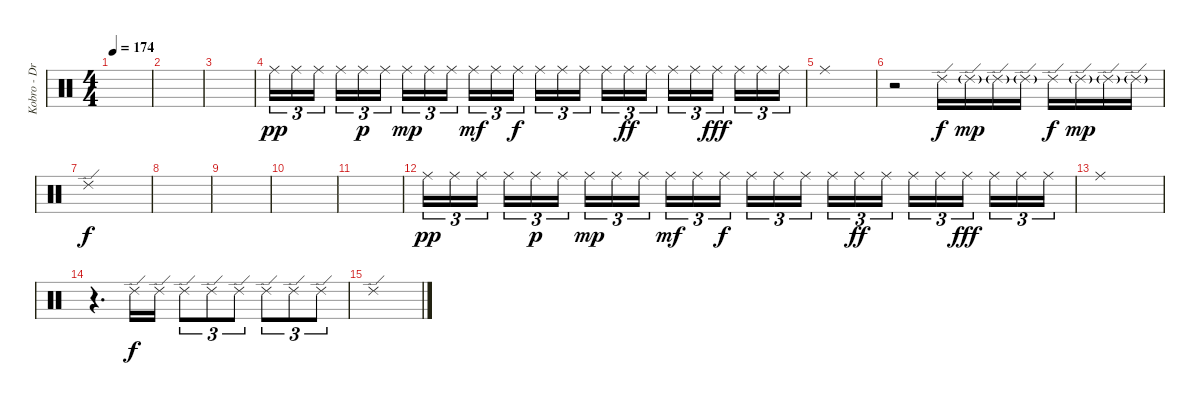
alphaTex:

\track ("Kobro - Drums + Percussion" "Kobro - Dr") {instrument percussion}
\staff {score}
\articulation defaults
\ts (4 4)
\tempo 174
\clef neutral
\ks c
|
|
|
"Ride (middle)".16{tu (3 2) dy pp} "Ride (middle)".16{tu (3 2)} "Ride (middle)".16{tu (3 2)} "Ride (middle)".16{tu (3 2)} "Ride (middle)".16{tu (3 2) dy p} "Ride (middle)".16{tu (3 2)} "Ride (middle)".16{tu (3 2) dy mp} "Ride (middle)".16{tu (3 2)} "Ride (middle)".16{tu (3 2)} "Ride (middle)".16{tu (3 2) dy mf} "Ride (middle)".16{tu (3 2)} "Ride (middle)".16{tu (3 2) dy f} "Ride (middle)".16{tu (3 2)} "Ride (middle)".16{tu (3 2)} "Ride (middle)".16{tu (3 2)} "Ride (middle)".16{tu (3 2)} "Ride (middle)".16{tu (3 2) dy ff} "Ride (middle)".16{tu (3 2)} "Ride (middle)".16{tu (3 2)} "Ride (middle)".16{tu (3 2)} "Ride (middle)".16{tu (3 2) dy fff} "Ride (middle)".16{tu (3 2)} "Ride (middle)".16{tu (3 2)} "Ride (middle)".16{tu (3 2)} |
"Ride (middle)".1 |
r.2 "Ride (edge) 2".16{dy f} "Ride (edge) 2"{g}.16{dy mp} "Ride (edge) 2"{g}.16 "Ride (edge) 2"{g}.16 "Ride (edge) 2".16{dy f} "Ride (edge) 2"{g}.16{dy mp} "Ride (edge) 2"{g}.16 "Ride (edge) 2"{g}.16 |
"Ride (edge) 2".1{dy f} |
|
|
|
|
"Ride (middle)".16{tu (3 2) dy pp} "Ride (middle)".16{tu (3 2)} "Ride (middle)".16{tu (3 2)} "Ride (middle)".16{tu (3 2)} "Ride (middle)".16{tu (3 2) dy p} "Ride (middle)".16{tu (3 2)} "Ride (middle)".16{tu (3 2) dy mp} "Ride (middle)".16{tu (3 2)} "Ride (middle)".16{tu (3 2)} "Ride (middle)".16{tu (3 2) dy mf} "Ride (middle)".16{tu (3 2)} "Ride (middle)".16{tu (3 2) dy f} "Ride (middle)".16{tu (3 2)} "Ride (middle)".16{tu (3 2)} "Ride (middle)".16{tu (3 2)} "Ride (middle)".16{tu (3 2)} "Ride (middle)".16{tu (3 2) dy ff} "Ride (middle)".16{tu (3 2)} "Ride (middle)".16{tu (3 2)} "Ride (middle)".16{tu (3 2)} "Ride (middle)".16{tu (3 2) dy fff} "Ride (middle)".16{tu (3 2)} "Ride (middle)".16{tu (3 2)} "Ride (middle)".16{tu (3 2)} |
"Ride (middle)".1 |
r.4{d} "Ride (edge) 2".16{dy f} "Ride (edge) 2".16 "Ride (edge) 2".8{tu (3 2)} "Ride (edge) 2".8{tu (3 2)} "Ride (edge) 2".8{tu (3 2)} "Ride (edge) 2".8{tu (3 2)} "Ride (edge) 2".8{tu (3 2)} "Ride (edge) 2".8{tu (3 2)} |
"Ride (edge) 2".1
